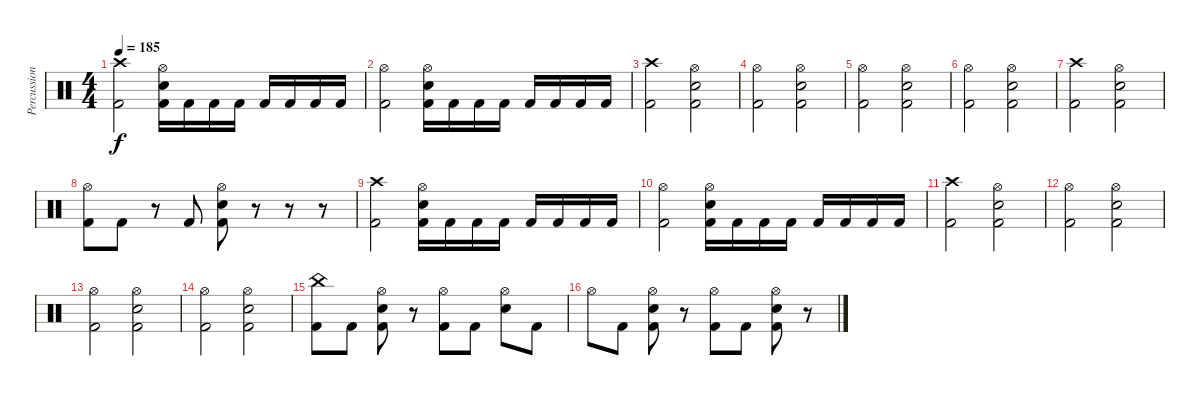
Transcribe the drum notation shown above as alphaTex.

\track ("Percussion" "Percussion") {instrument percussion}
\staff {score}
\articulation defaults
\ts (4 4)
\tempo 185
\clef neutral
\ks c
("Kick (hit) 2" "Crash high (hit)").2{dy f} ("Snare (hit) 2" "Hi-Hat (open)" "Kick (hit) 2").16 "Kick (hit) 2".16 "Kick (hit) 2".16 "Kick (hit) 2".16 "Kick (hit) 2".16 "Kick (hit) 2".16 "Kick (hit) 2".16 "Kick (hit) 2".16 |
("Kick (hit) 2" "Hi-Hat (open)").2 ("Snare (hit) 2" "Kick (hit) 2" "Hi-Hat (open)").16 "Kick (hit) 2".16 "Kick (hit) 2".16 "Kick (hit) 2".16 "Kick (hit) 2".16 "Kick (hit) 2".16 "Kick (hit) 2".16 "Kick (hit) 2".16 |
("Kick (hit) 2" "Crash high (hit)").2 ("Kick (hit) 2" "Snare (hit) 2" "Hi-Hat (open)").2 |
("Kick (hit) 2" "Hi-Hat (open)").2 ("Kick (hit) 2" "Snare (hit) 2" "Hi-Hat (open)").2 |
("Kick (hit) 2" "Hi-Hat (open)").2 ("Kick (hit) 2" "Snare (hit) 2" "Hi-Hat (open)").2 |
("Kick (hit) 2" "Hi-Hat (open)").2 ("Kick (hit) 2" "Snare (hit) 2" "Hi-Hat (open)").2 |
("Kick (hit) 2" "Crash high (hit)").2 ("Kick (hit) 2" "Snare (hit) 2" "Hi-Hat (open)").2 |
("Kick (hit) 2" "Hi-Hat (open)").8 "Kick (hit) 2".8 r.8 "Kick (hit) 2".8 ("Kick (hit) 2" "Hi-Hat (open)" "Snare (hit) 2").8 r.8 r.8 r.8 |
("Kick (hit) 2" "Crash high (hit)").2 ("Snare (hit) 2" "Hi-Hat (open)" "Kick (hit) 2").16 "Kick (hit) 2".16 "Kick (hit) 2".16 "Kick (hit) 2".16 "Kick (hit) 2".16 "Kick (hit) 2".16 "Kick (hit) 2".16 "Kick (hit) 2".16 |
("Kick (hit) 2" "Hi-Hat (open)").2 ("Snare (hit) 2" "Kick (hit) 2" "Hi-Hat (open)").16 "Kick (hit) 2".16 "Kick (hit) 2".16 "Kick (hit) 2".16 "Kick (hit) 2".16 "Kick (hit) 2".16 "Kick (hit) 2".16 "Kick (hit) 2".16 |
("Kick (hit) 2" "Crash high (hit)").2 ("Kick (hit) 2" "Snare (hit) 2" "Hi-Hat (open)").2 |
("Kick (hit) 2" "Hi-Hat (open)").2 ("Kick (hit) 2" "Snare (hit) 2" "Hi-Hat (open)").2 |
("Kick (hit) 2" "Hi-Hat (open)").2 ("Kick (hit) 2" "Snare (hit) 2" "Hi-Hat (open)").2 |
("Kick (hit) 2" "Hi-Hat (open)").2 ("Kick (hit) 2" "Snare (hit) 2" "Hi-Hat (open)").2 |
("China (hit)" "Kick (hit) 2").8 "Kick (hit) 2".8 ("Snare (hit) 2" "Hi-Hat (open)" "Kick (hit) 2").8 r.8 ("Hi-Hat (open)" "Kick (hit) 2").8 "Kick (hit) 2".8 ("Snare (hit) 2" "Hi-Hat (open)").8 "Kick (hit) 2".8 |
"Hi-Hat (open)".8 "Kick (hit) 2".8 ("Snare (hit) 2" "Hi-Hat (open)" "Kick (hit) 2").8 r.8 ("Hi-Hat (open)" "Kick (hit) 2").8 "Kick (hit) 2".8 ("Snare (hit) 2" "Hi-Hat (open)" "Kick (hit) 2").8 r.8
